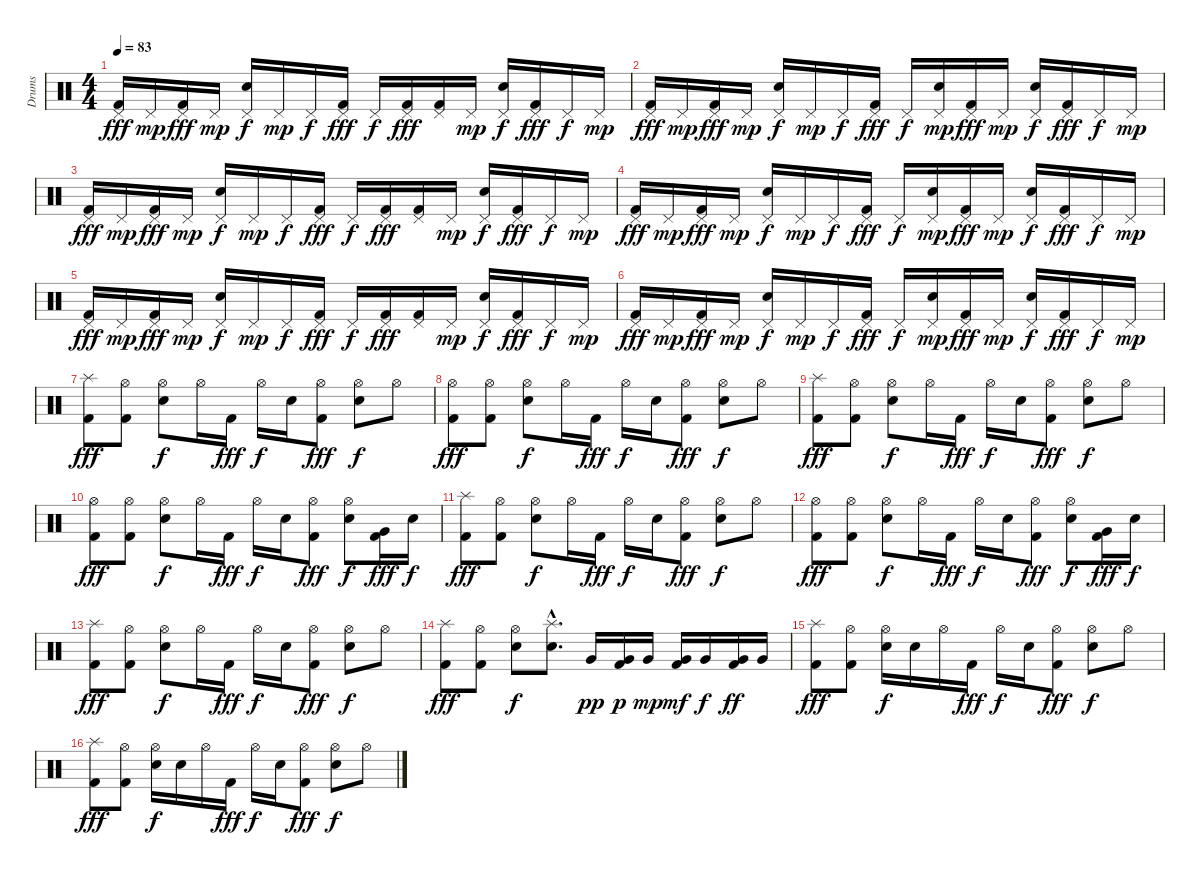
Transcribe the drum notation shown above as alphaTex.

\track ("Drums" "Drums") {instrument percussion}
\staff {score}
\articulation defaults
\ts (4 4)
\tempo 83
\clef neutral
\ks c
("Pedal Hi-Hat (hit)" "Kick (hit) 2").16{dy fff} "Pedal Hi-Hat (hit)".16{dy mp} ("Pedal Hi-Hat (hit)" "Kick (hit) 2").16{dy fff} "Pedal Hi-Hat (hit)".16{dy mp} ("Pedal Hi-Hat (hit)" "Snare (hit) 2").16{dy f} "Pedal Hi-Hat (hit)".16{dy mp} "Pedal Hi-Hat (hit)".16{dy f} ("Pedal Hi-Hat (hit)" "Kick (hit) 2").16{dy fff} "Pedal Hi-Hat (hit)".16{dy f} ("Pedal Hi-Hat (hit)" "Kick (hit) 2").16{dy fff} ("Pedal Hi-Hat (hit)" "Kick (hit) 2").16 "Pedal Hi-Hat (hit)".16{dy mp} ("Pedal Hi-Hat (hit)" "Snare (hit) 2").16{dy f} ("Pedal Hi-Hat (hit)" "Kick (hit) 2").16{dy fff} "Pedal Hi-Hat (hit)".16{dy f} "Pedal Hi-Hat (hit)".16{dy mp} |
("Pedal Hi-Hat (hit)" "Kick (hit) 2").16{dy fff} "Pedal Hi-Hat (hit)".16{dy mp} ("Pedal Hi-Hat (hit)" "Kick (hit) 2").16{dy fff} "Pedal Hi-Hat (hit)".16{dy mp} ("Pedal Hi-Hat (hit)" "Snare (hit) 2").16{dy f} "Pedal Hi-Hat (hit)".16{dy mp} "Pedal Hi-Hat (hit)".16{dy f} ("Pedal Hi-Hat (hit)" "Kick (hit) 2").16{dy fff} "Pedal Hi-Hat (hit)".16{dy f} ("Pedal Hi-Hat (hit)" "Snare (hit) 2").16{dy mp} ("Pedal Hi-Hat (hit)" "Kick (hit) 2").16{dy fff} "Pedal Hi-Hat (hit)".16{dy mp} ("Pedal Hi-Hat (hit)" "Snare (hit) 2").16{dy f} ("Pedal Hi-Hat (hit)" "Kick (hit) 2").16{dy fff} "Pedal Hi-Hat (hit)".16{dy f} "Pedal Hi-Hat (hit)".16{dy mp} |
("Pedal Hi-Hat (hit)" "Kick (hit) 2").16{dy fff} "Pedal Hi-Hat (hit)".16{dy mp} ("Pedal Hi-Hat (hit)" "Kick (hit) 2").16{dy fff} "Pedal Hi-Hat (hit)".16{dy mp} ("Pedal Hi-Hat (hit)" "Snare (hit) 2").16{dy f} "Pedal Hi-Hat (hit)".16{dy mp} "Pedal Hi-Hat (hit)".16{dy f} ("Pedal Hi-Hat (hit)" "Kick (hit) 2").16{dy fff} "Pedal Hi-Hat (hit)".16{dy f} ("Pedal Hi-Hat (hit)" "Kick (hit) 2").16{dy fff} ("Pedal Hi-Hat (hit)" "Kick (hit) 2").16 "Pedal Hi-Hat (hit)".16{dy mp} ("Pedal Hi-Hat (hit)" "Snare (hit) 2").16{dy f} ("Pedal Hi-Hat (hit)" "Kick (hit) 2").16{dy fff} "Pedal Hi-Hat (hit)".16{dy f} "Pedal Hi-Hat (hit)".16{dy mp} |
("Pedal Hi-Hat (hit)" "Kick (hit) 2").16{dy fff} "Pedal Hi-Hat (hit)".16{dy mp} ("Pedal Hi-Hat (hit)" "Kick (hit) 2").16{dy fff} "Pedal Hi-Hat (hit)".16{dy mp} ("Pedal Hi-Hat (hit)" "Snare (hit) 2").16{dy f} "Pedal Hi-Hat (hit)".16{dy mp} "Pedal Hi-Hat (hit)".16{dy f} ("Pedal Hi-Hat (hit)" "Kick (hit) 2").16{dy fff} "Pedal Hi-Hat (hit)".16{dy f} ("Pedal Hi-Hat (hit)" "Snare (hit) 2").16{dy mp} ("Pedal Hi-Hat (hit)" "Kick (hit) 2").16{dy fff} "Pedal Hi-Hat (hit)".16{dy mp} ("Pedal Hi-Hat (hit)" "Snare (hit) 2").16{dy f} ("Pedal Hi-Hat (hit)" "Kick (hit) 2").16{dy fff} "Pedal Hi-Hat (hit)".16{dy f} "Pedal Hi-Hat (hit)".16{dy mp} |
("Pedal Hi-Hat (hit)" "Kick (hit) 2").16{dy fff} "Pedal Hi-Hat (hit)".16{dy mp} ("Pedal Hi-Hat (hit)" "Kick (hit) 2").16{dy fff} "Pedal Hi-Hat (hit)".16{dy mp} ("Pedal Hi-Hat (hit)" "Snare (hit) 2").16{dy f} "Pedal Hi-Hat (hit)".16{dy mp} "Pedal Hi-Hat (hit)".16{dy f} ("Pedal Hi-Hat (hit)" "Kick (hit) 2").16{dy fff} "Pedal Hi-Hat (hit)".16{dy f} ("Pedal Hi-Hat (hit)" "Kick (hit) 2").16{dy fff} ("Pedal Hi-Hat (hit)" "Kick (hit) 2").16 "Pedal Hi-Hat (hit)".16{dy mp} ("Pedal Hi-Hat (hit)" "Snare (hit) 2").16{dy f} ("Pedal Hi-Hat (hit)" "Kick (hit) 2").16{dy fff} "Pedal Hi-Hat (hit)".16{dy f} "Pedal Hi-Hat (hit)".16{dy mp} |
("Pedal Hi-Hat (hit)" "Kick (hit) 2").16{dy fff} "Pedal Hi-Hat (hit)".16{dy mp} ("Pedal Hi-Hat (hit)" "Kick (hit) 2").16{dy fff} "Pedal Hi-Hat (hit)".16{dy mp} ("Pedal Hi-Hat (hit)" "Snare (hit) 2").16{dy f} "Pedal Hi-Hat (hit)".16{dy mp} "Pedal Hi-Hat (hit)".16{dy f} ("Pedal Hi-Hat (hit)" "Kick (hit) 2").16{dy fff} "Pedal Hi-Hat (hit)".16{dy f} ("Pedal Hi-Hat (hit)" "Snare (hit) 2").16{dy mp} ("Pedal Hi-Hat (hit)" "Kick (hit) 2").16{dy fff} "Pedal Hi-Hat (hit)".16{dy mp} ("Pedal Hi-Hat (hit)" "Snare (hit) 2").16{dy f} ("Pedal Hi-Hat (hit)" "Kick (hit) 2").16{dy fff} "Pedal Hi-Hat (hit)".16{dy f} "Pedal Hi-Hat (hit)".16{dy mp} |
("Splash (hit)" "Kick (hit) 2").8{dy fff} ("Hi-Hat (open)" "Kick (hit) 2").8 ("Hi-Hat (open)" "Snare (hit) 2").8{dy f} "Hi-Hat (open)".16 "Kick (hit) 2".16{dy fff} "Hi-Hat (open)".16{dy f} "Snare (hit) 2".16 ("Hi-Hat (open)" "Kick (hit) 2").8{dy fff} ("Hi-Hat (open)" "Snare (hit) 2").8{dy f} "Hi-Hat (open)".8 |
("Hi-Hat (open)" "Kick (hit) 2").8{dy fff} ("Hi-Hat (open)" "Kick (hit) 2").8 ("Hi-Hat (open)" "Snare (hit) 2").8{dy f} "Hi-Hat (open)".16 "Kick (hit) 2".16{dy fff} "Hi-Hat (open)".16{dy f} "Snare (hit) 2".16 ("Hi-Hat (open)" "Kick (hit) 2").8{dy fff} ("Hi-Hat (open)" "Snare (hit) 2").8{dy f} "Hi-Hat (open)".8 |
("Splash (hit)" "Kick (hit) 2").8{dy fff} ("Hi-Hat (open)" "Kick (hit) 2").8 ("Hi-Hat (open)" "Snare (hit) 2").8{dy f} "Hi-Hat (open)".16 "Kick (hit) 2".16{dy fff} "Hi-Hat (open)".16{dy f} "Snare (hit) 2".16 ("Hi-Hat (open)" "Kick (hit) 2").8{dy fff} ("Hi-Hat (open)" "Snare (hit) 2").8{dy f} "Hi-Hat (open)".8 |
("Hi-Hat (open)" "Kick (hit) 2").8{dy fff} ("Hi-Hat (open)" "Kick (hit) 2").8 ("Hi-Hat (open)" "Snare (hit) 2").8{dy f} "Hi-Hat (open)".16 "Kick (hit) 2".16{dy fff} "Hi-Hat (open)".16{dy f} "Snare (hit) 2".16 ("Hi-Hat (open)" "Kick (hit) 2").8{dy fff} ("Hi-Hat (open)" "Snare (hit) 2").8{dy f} ("Very Low Tom (hit)" "Kick (hit) 2").16{dy fff} "Snare (hit) 2".16{dy f} |
("Splash (hit)" "Kick (hit) 2").8{dy fff} ("Hi-Hat (open)" "Kick (hit) 2").8 ("Hi-Hat (open)" "Snare (hit) 2").8{dy f} "Hi-Hat (open)".16 "Kick (hit) 2".16{dy fff} "Hi-Hat (open)".16{dy f} "Snare (hit) 2".16 ("Hi-Hat (open)" "Kick (hit) 2").8{dy fff} ("Hi-Hat (open)" "Snare (hit) 2").8{dy f} "Hi-Hat (open)".8 |
("Hi-Hat (open)" "Kick (hit) 2").8{dy fff} ("Hi-Hat (open)" "Kick (hit) 2").8 ("Hi-Hat (open)" "Snare (hit) 2").8{dy f} "Hi-Hat (open)".16 "Kick (hit) 2".16{dy fff} "Hi-Hat (open)".16{dy f} "Snare (hit) 2".16 ("Hi-Hat (open)" "Kick (hit) 2").8{dy fff} ("Hi-Hat (open)" "Snare (hit) 2").8{dy f} ("Very Low Tom (hit)" "Kick (hit) 2").16{dy fff} "Snare (hit) 2".16{dy f} |
("Splash (hit)" "Kick (hit) 2").8{dy fff} ("Hi-Hat (open)" "Kick (hit) 2").8 ("Hi-Hat (open)" "Snare (hit) 2").8{dy f} "Hi-Hat (open)".16 "Kick (hit) 2".16{dy fff} "Hi-Hat (open)".16{dy f} "Snare (hit) 2".16 ("Hi-Hat (open)" "Kick (hit) 2").8{dy fff} ("Hi-Hat (open)" "Snare (hit) 2").8{dy f} "Hi-Hat (open)".8 |
("Splash (hit)" "Kick (hit) 2").8{dy fff} ("Hi-Hat (open)" "Kick (hit) 2").8 ("Hi-Hat (open)" "Snare (hit) 2").8{dy f} ("Splash (hit)"{hac} "Snare (hit) 2"{hac}).8{d} "Very Low Tom (hit)".16{dy pp} ("Very Low Tom (hit)" "Kick (hit) 2").16{dy p} "Very Low Tom (hit)".16{dy mp} ("Very Low Tom (hit)" "Kick (hit) 2").16{dy mf} "Very Low Tom (hit)".16{dy f} ("Very Low Tom (hit)" "Kick (hit) 2").16{dy ff} "Very Low Tom (hit)".16 |
("Splash (hit)" "Kick (hit) 2").8{dy fff} ("Hi-Hat (open)" "Kick (hit) 2").8 ("Hi-Hat (open)" "Snare (hit) 2").16{dy f} "Snare (hit) 2".16 "Hi-Hat (open)".16 "Kick (hit) 2".16{dy fff} "Hi-Hat (open)".16{dy f} "Snare (hit) 2".16 ("Hi-Hat (open)" "Kick (hit) 2").8{dy fff} ("Hi-Hat (open)" "Snare (hit) 2").8{dy f} "Hi-Hat (open)".8 |
("Splash (hit)" "Kick (hit) 2").8{dy fff} ("Hi-Hat (open)" "Kick (hit) 2").8 ("Hi-Hat (open)" "Snare (hit) 2").16{dy f} "Snare (hit) 2".16 "Hi-Hat (open)".16 "Kick (hit) 2".16{dy fff} "Hi-Hat (open)".16{dy f} "Snare (hit) 2".16 ("Hi-Hat (open)" "Kick (hit) 2").8{dy fff} ("Hi-Hat (open)" "Snare (hit) 2").8{dy f} "Hi-Hat (open)".8
